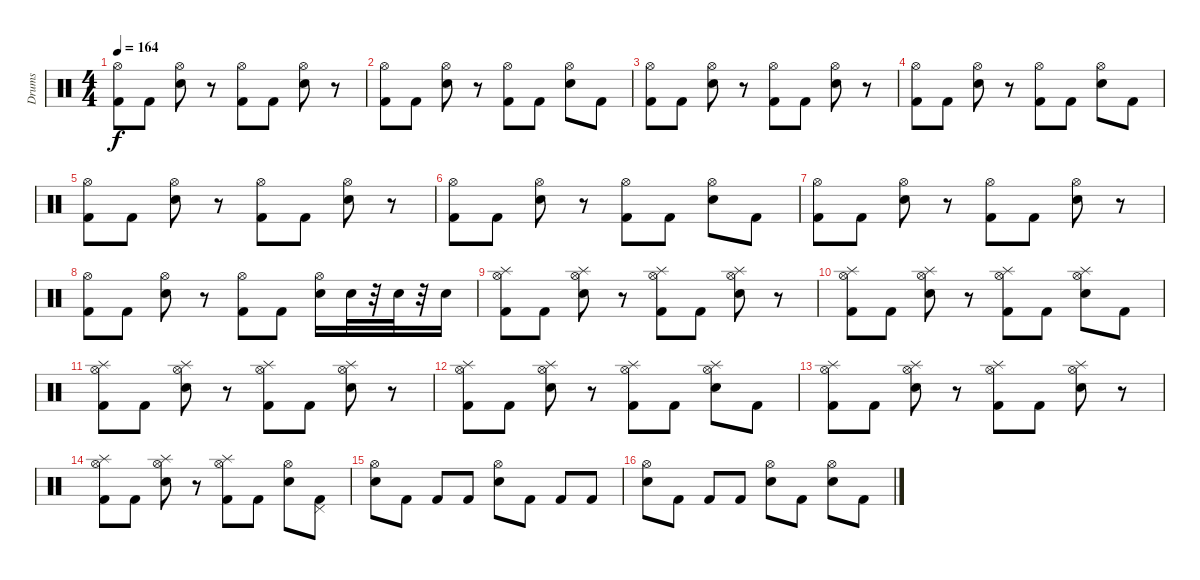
\track ("Drums" "Drums") {instrument percussion}
\staff {score}
\articulation defaults
\ts (4 4)
\tempo 164
\clef neutral
\ks c
("Hi-Hat (open)" "Kick (hit) 2").8{dy f} "Kick (hit) 2".8 ("Hi-Hat (open)" "Electric Snare (hit)").8 r.8 ("Hi-Hat (open)" "Kick (hit) 2").8 "Kick (hit) 2".8 ("Hi-Hat (open)" "Electric Snare (hit)").8 r.8 |
("Hi-Hat (open)" "Kick (hit) 2").8 "Kick (hit) 2".8 ("Hi-Hat (open)" "Electric Snare (hit)").8 r.8 ("Hi-Hat (open)" "Kick (hit) 2").8 "Kick (hit) 2".8 ("Hi-Hat (open)" "Electric Snare (hit)").8 "Kick (hit) 2".8 |
("Hi-Hat (open)" "Kick (hit) 2").8 "Kick (hit) 2".8 ("Hi-Hat (open)" "Electric Snare (hit)").8 r.8 ("Hi-Hat (open)" "Kick (hit) 2").8 "Kick (hit) 2".8 ("Hi-Hat (open)" "Electric Snare (hit)").8 r.8 |
("Hi-Hat (open)" "Kick (hit) 2").8 "Kick (hit) 2".8 ("Hi-Hat (open)" "Electric Snare (hit)").8 r.8 ("Hi-Hat (open)" "Kick (hit) 2").8 "Kick (hit) 2".8 ("Hi-Hat (open)" "Electric Snare (hit)").8 "Kick (hit) 2".8 |
("Hi-Hat (open)" "Kick (hit) 2").8 "Kick (hit) 2".8 ("Hi-Hat (open)" "Electric Snare (hit)").8 r.8 ("Hi-Hat (open)" "Kick (hit) 2").8 "Kick (hit) 2".8 ("Hi-Hat (open)" "Electric Snare (hit)").8 r.8 |
("Hi-Hat (open)" "Kick (hit) 2").8 "Kick (hit) 2".8 ("Hi-Hat (open)" "Electric Snare (hit)").8 r.8 ("Hi-Hat (open)" "Kick (hit) 2").8 "Kick (hit) 2".8 ("Hi-Hat (open)" "Electric Snare (hit)").8 "Kick (hit) 2".8 |
("Hi-Hat (open)" "Kick (hit) 2").8 "Kick (hit) 2".8 ("Hi-Hat (open)" "Electric Snare (hit)").8 r.8 ("Hi-Hat (open)" "Kick (hit) 2").8 "Kick (hit) 2".8 ("Hi-Hat (open)" "Electric Snare (hit)").8 r.8 |
("Hi-Hat (open)" "Kick (hit) 2").8 "Kick (hit) 2".8 ("Hi-Hat (open)" "Electric Snare (hit)").8 r.8 ("Hi-Hat (open)" "Kick (hit) 2").8 "Kick (hit) 2".8 ("Hi-Hat (open)" "Electric Snare (hit)").16 "Electric Snare (hit)".32 r.32 "Electric Snare (hit)".32 r.32 "Electric Snare (hit)".16 |
("Kick (hit) 2" "Splash (hit)" "Hi-Hat (open)").8 "Kick (hit) 2".8 ("Electric Snare (hit)" "Splash (hit)" "Hi-Hat (open)").8 r.8 ("Kick (hit) 2" "Splash (hit)" "Hi-Hat (open)").8 "Kick (hit) 2".8 ("Electric Snare (hit)" "Splash (hit)" "Hi-Hat (open)").8 r.8 |
("Hi-Hat (open)" "Kick (hit) 2" "Splash (hit)").8 "Kick (hit) 2".8 ("Hi-Hat (open)" "Electric Snare (hit)" "Splash (hit)").8 r.8 ("Hi-Hat (open)" "Kick (hit) 2" "Splash (hit)").8 "Kick (hit) 2".8 ("Hi-Hat (open)" "Electric Snare (hit)" "Splash (hit)").8 "Kick (hit) 2".8 |
("Kick (hit) 2" "Splash (hit)" "Hi-Hat (open)").8 "Kick (hit) 2".8 ("Electric Snare (hit)" "Splash (hit)" "Hi-Hat (open)").8 r.8 ("Kick (hit) 2" "Splash (hit)" "Hi-Hat (open)").8 "Kick (hit) 2".8 ("Electric Snare (hit)" "Splash (hit)" "Hi-Hat (open)").8 r.8 |
("Hi-Hat (open)" "Kick (hit) 2" "Splash (hit)").8 "Kick (hit) 2".8 ("Hi-Hat (open)" "Electric Snare (hit)" "Splash (hit)").8 r.8 ("Hi-Hat (open)" "Kick (hit) 2" "Splash (hit)").8 "Kick (hit) 2".8 ("Hi-Hat (open)" "Electric Snare (hit)" "Splash (hit)").8 "Kick (hit) 2".8 |
("Kick (hit) 2" "Splash (hit)" "Hi-Hat (open)").8 "Kick (hit) 2".8 ("Electric Snare (hit)" "Splash (hit)" "Hi-Hat (open)").8 r.8 ("Kick (hit) 2" "Splash (hit)" "Hi-Hat (open)").8 "Kick (hit) 2".8 ("Electric Snare (hit)" "Splash (hit)" "Hi-Hat (open)").8 r.8 |
("Hi-Hat (open)" "Kick (hit) 2" "Splash (hit)").8 "Kick (hit) 2".8 ("Hi-Hat (open)" "Electric Snare (hit)" "Splash (hit)").8 r.8 ("Hi-Hat (open)" "Kick (hit) 2" "Splash (hit)").8 "Kick (hit) 2".8 ("Electric Snare (hit)" "Hi-Hat (open)").8 ("Kick (hit) 2" "Pedal Hi-Hat (hit)").8 |
("Electric Snare (hit)" "Hi-Hat (open)").8 "Kick (hit) 2".8 "Kick (hit) 2".8 "Kick (hit) 2".8 ("Electric Snare (hit)" "Hi-Hat (open)").8 "Kick (hit) 2".8 "Kick (hit) 2".8 "Kick (hit) 2".8 |
("Electric Snare (hit)" "Hi-Hat (open)").8 "Kick (hit) 2".8 "Kick (hit) 2".8 "Kick (hit) 2".8 ("Electric Snare (hit)" "Hi-Hat (open)").8 "Kick (hit) 2".8 ("Electric Snare (hit)" "Hi-Hat (open)").8 "Kick (hit) 2".8
